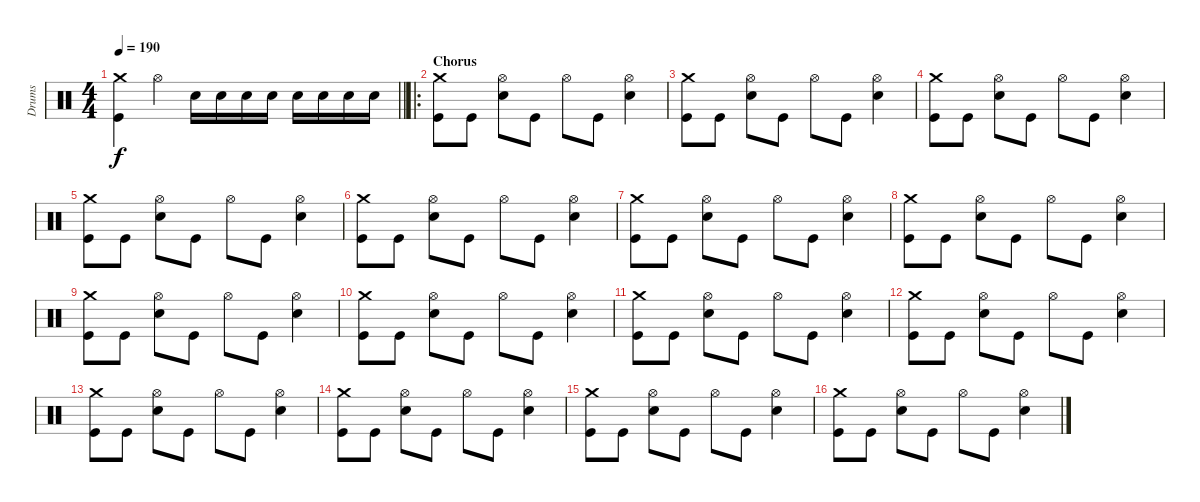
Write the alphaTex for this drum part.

\track ("Drums" "Drums") {instrument percussion}
\staff {score}
\articulation defaults
\ts (4 4)
\tempo 190
\clef neutral
\barLineRight lightlight
\ks c
("Crash medium (hit)" "Kick (hit)").4{dy f} "Hi-Hat (open)".4 "Snare (hit) 2".16 "Snare (hit) 2".16 "Snare (hit) 2".16 "Snare (hit) 2".16 "Snare (hit) 2".16 "Snare (hit) 2".16 "Snare (hit) 2".16 "Snare (hit) 2".16 |
\ro
\section ("" "Chorus")
("Crash medium (hit)" "Kick (hit)").8 "Kick (hit)".8 ("Hi-Hat (open)" "Snare (hit) 2").8 "Kick (hit)".8 "Hi-Hat (open)".8 "Kick (hit)".8 ("Hi-Hat (open)" "Snare (hit) 2").4 |
("Crash medium (hit)" "Kick (hit)").8 "Kick (hit)".8 ("Hi-Hat (open)" "Snare (hit) 2").8 "Kick (hit)".8 "Hi-Hat (open)".8 "Kick (hit)".8 ("Hi-Hat (open)" "Snare (hit) 2").4 |
("Crash medium (hit)" "Kick (hit)").8 "Kick (hit)".8 ("Hi-Hat (open)" "Snare (hit) 2").8 "Kick (hit)".8 "Hi-Hat (open)".8 "Kick (hit)".8 ("Hi-Hat (open)" "Snare (hit) 2").4 |
("Crash medium (hit)" "Kick (hit)").8 "Kick (hit)".8 ("Hi-Hat (open)" "Snare (hit) 2").8 "Kick (hit)".8 "Hi-Hat (open)".8 "Kick (hit)".8 ("Hi-Hat (open)" "Snare (hit) 2").4 |
("Crash medium (hit)" "Kick (hit)").8 "Kick (hit)".8 ("Hi-Hat (open)" "Snare (hit) 2").8 "Kick (hit)".8 "Hi-Hat (open)".8 "Kick (hit)".8 ("Hi-Hat (open)" "Snare (hit) 2").4 |
("Crash medium (hit)" "Kick (hit)").8 "Kick (hit)".8 ("Hi-Hat (open)" "Snare (hit) 2").8 "Kick (hit)".8 "Hi-Hat (open)".8 "Kick (hit)".8 ("Hi-Hat (open)" "Snare (hit) 2").4 |
("Crash medium (hit)" "Kick (hit)").8 "Kick (hit)".8 ("Hi-Hat (open)" "Snare (hit) 2").8 "Kick (hit)".8 "Hi-Hat (open)".8 "Kick (hit)".8 ("Hi-Hat (open)" "Snare (hit) 2").4 |
("Crash medium (hit)" "Kick (hit)").8 "Kick (hit)".8 ("Hi-Hat (open)" "Snare (hit) 2").8 "Kick (hit)".8 "Hi-Hat (open)".8 "Kick (hit)".8 ("Hi-Hat (open)" "Snare (hit) 2").4 |
("Crash medium (hit)" "Kick (hit)").8 "Kick (hit)".8 ("Hi-Hat (open)" "Snare (hit) 2").8 "Kick (hit)".8 "Hi-Hat (open)".8 "Kick (hit)".8 ("Hi-Hat (open)" "Snare (hit) 2").4 |
("Crash medium (hit)" "Kick (hit)").8 "Kick (hit)".8 ("Hi-Hat (open)" "Snare (hit) 2").8 "Kick (hit)".8 "Hi-Hat (open)".8 "Kick (hit)".8 ("Hi-Hat (open)" "Snare (hit) 2").4 |
("Crash medium (hit)" "Kick (hit)").8 "Kick (hit)".8 ("Hi-Hat (open)" "Snare (hit) 2").8 "Kick (hit)".8 "Hi-Hat (open)".8 "Kick (hit)".8 ("Hi-Hat (open)" "Snare (hit) 2").4 |
("Crash medium (hit)" "Kick (hit)").8 "Kick (hit)".8 ("Hi-Hat (open)" "Snare (hit) 2").8 "Kick (hit)".8 "Hi-Hat (open)".8 "Kick (hit)".8 ("Hi-Hat (open)" "Snare (hit) 2").4 |
("Crash medium (hit)" "Kick (hit)").8 "Kick (hit)".8 ("Hi-Hat (open)" "Snare (hit) 2").8 "Kick (hit)".8 "Hi-Hat (open)".8 "Kick (hit)".8 ("Hi-Hat (open)" "Snare (hit) 2").4 |
("Crash medium (hit)" "Kick (hit)").8 "Kick (hit)".8 ("Hi-Hat (open)" "Snare (hit) 2").8 "Kick (hit)".8 "Hi-Hat (open)".8 "Kick (hit)".8 ("Hi-Hat (open)" "Snare (hit) 2").4 |
("Crash medium (hit)" "Kick (hit)").8 "Kick (hit)".8 ("Hi-Hat (open)" "Snare (hit) 2").8 "Kick (hit)".8 "Hi-Hat (open)".8 "Kick (hit)".8 ("Hi-Hat (open)" "Snare (hit) 2").4
